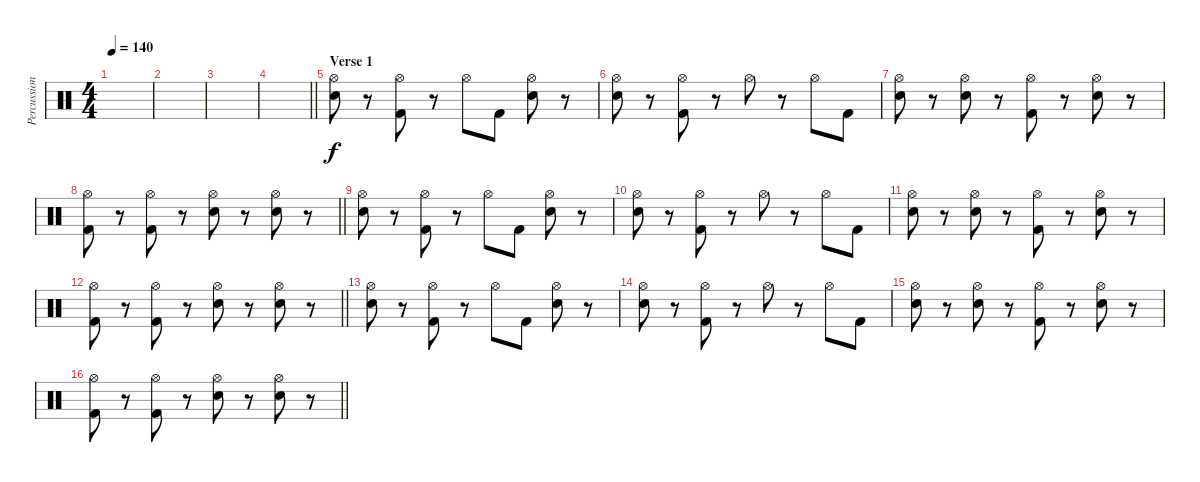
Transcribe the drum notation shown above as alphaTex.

\track ("Percussion" "Percussion") {instrument percussion}
\staff {score}
\articulation defaults
\ts (4 4)
\tempo 140
\clef neutral
\ks c
|
|
|
\barLineRight lightlight
|
\section ("" "Verse 1")
("Hi-Hat (open)" "Snare (hit) 2").8 r.8 ("Hi-Hat (open)" "Kick (hit) 2").8 r.8 "Hi-Hat (open)".8 "Kick (hit) 2".8 ("Hi-Hat (open)" "Snare (hit) 2").8 r.8 |
("Hi-Hat (open)" "Snare (hit) 2").8 r.8 ("Hi-Hat (open)" "Kick (hit) 2").8 r.8 "Hi-Hat (open)".8 r.8 "Hi-Hat (open)".8 "Kick (hit) 2".8 |
("Hi-Hat (open)" "Snare (hit) 2").8 r.8 ("Hi-Hat (open)" "Snare (hit) 2").8 r.8 ("Hi-Hat (open)" "Kick (hit) 2").8 r.8 ("Hi-Hat (open)" "Snare (hit) 2").8 r.8 |
\barLineRight lightlight
("Hi-Hat (open)" "Kick (hit) 2").8 r.8 ("Hi-Hat (open)" "Kick (hit) 2").8 r.8 ("Hi-Hat (open)" "Snare (hit) 2").8 r.8 ("Hi-Hat (open)" "Snare (hit) 2").8 r.8 |
("Hi-Hat (open)" "Snare (hit) 2").8 r.8 ("Hi-Hat (open)" "Kick (hit) 2").8 r.8 "Hi-Hat (open)".8 "Kick (hit) 2".8 ("Hi-Hat (open)" "Snare (hit) 2").8 r.8 |
("Hi-Hat (open)" "Snare (hit) 2").8 r.8 ("Hi-Hat (open)" "Kick (hit) 2").8 r.8 "Hi-Hat (open)".8 r.8 "Hi-Hat (open)".8 "Kick (hit) 2".8 |
("Hi-Hat (open)" "Snare (hit) 2").8 r.8 ("Hi-Hat (open)" "Snare (hit) 2").8 r.8 ("Hi-Hat (open)" "Kick (hit) 2").8 r.8 ("Hi-Hat (open)" "Snare (hit) 2").8 r.8 |
\barLineRight lightlight
("Hi-Hat (open)" "Kick (hit) 2").8 r.8 ("Hi-Hat (open)" "Kick (hit) 2").8 r.8 ("Hi-Hat (open)" "Snare (hit) 2").8 r.8 ("Hi-Hat (open)" "Snare (hit) 2").8 r.8 |
("Hi-Hat (open)" "Snare (hit) 2").8 r.8 ("Hi-Hat (open)" "Kick (hit) 2").8 r.8 "Hi-Hat (open)".8 "Kick (hit) 2".8 ("Hi-Hat (open)" "Snare (hit) 2").8 r.8 |
("Hi-Hat (open)" "Snare (hit) 2").8 r.8 ("Hi-Hat (open)" "Kick (hit) 2").8 r.8 "Hi-Hat (open)".8 r.8 "Hi-Hat (open)".8 "Kick (hit) 2".8 |
("Hi-Hat (open)" "Snare (hit) 2").8 r.8 ("Hi-Hat (open)" "Snare (hit) 2").8 r.8 ("Hi-Hat (open)" "Kick (hit) 2").8 r.8 ("Hi-Hat (open)" "Snare (hit) 2").8 r.8 |
\barLineRight lightlight
("Hi-Hat (open)" "Kick (hit) 2").8 r.8 ("Hi-Hat (open)" "Kick (hit) 2").8 r.8 ("Hi-Hat (open)" "Snare (hit) 2").8 r.8 ("Hi-Hat (open)" "Snare (hit) 2").8 r.8
